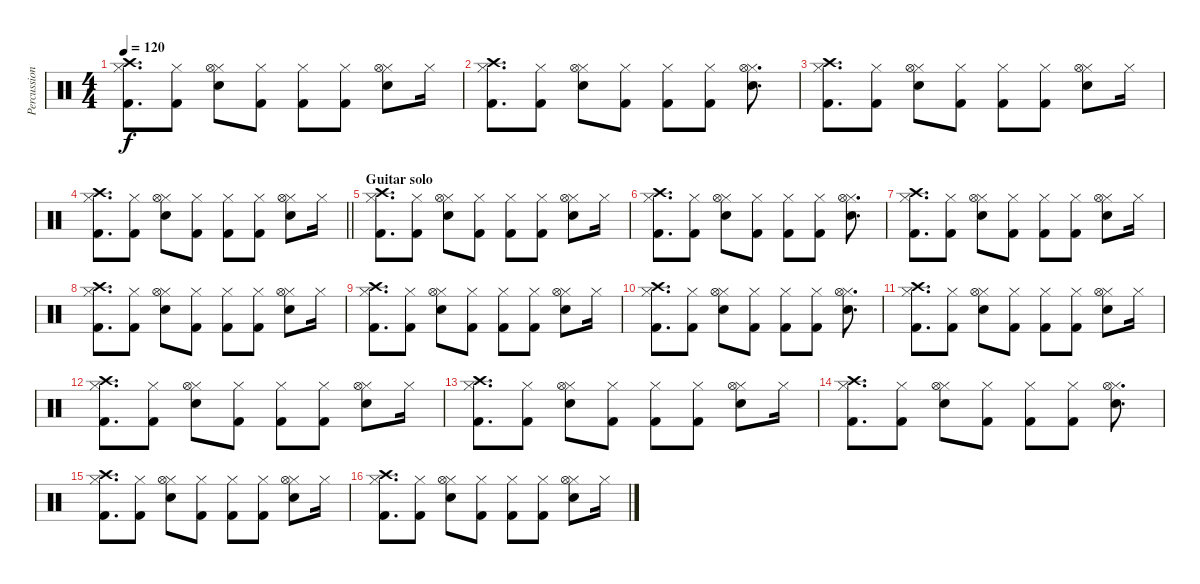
\track ("Percussion" "Percussion") {instrument percussion}
\staff {score}
\articulation defaults
\ts (4 4)
\tempo 120
\clef neutral
\ks c
("Hi-Hat (closed)" "Crash high (hit)" "Kick (hit) 2").8{d dy f} ("Hi-Hat (closed)" "Kick (hit) 2").8 ("Hi-Hat (closed)" "Hi-Hat (open)" "Electric Snare (hit)").8 ("Hi-Hat (closed)" "Kick (hit) 2").8 ("Hi-Hat (closed)" "Kick (hit) 2").8 ("Hi-Hat (closed)" "Kick (hit) 2").8 ("Hi-Hat (closed)" "Hi-Hat (open)" "Electric Snare (hit)").8 "Hi-Hat (closed)".16 |
("Hi-Hat (closed)" "Crash high (hit)" "Kick (hit) 2").8{d} ("Hi-Hat (closed)" "Kick (hit) 2").8 ("Hi-Hat (closed)" "Hi-Hat (open)" "Electric Snare (hit)").8 ("Hi-Hat (closed)" "Kick (hit) 2").8 ("Hi-Hat (closed)" "Kick (hit) 2").8 ("Hi-Hat (closed)" "Kick (hit) 2").8 ("Hi-Hat (closed)" "Hi-Hat (open)" "Electric Snare (hit)").8{d} |
("Hi-Hat (closed)" "Crash high (hit)" "Kick (hit) 2").8{d} ("Hi-Hat (closed)" "Kick (hit) 2").8 ("Hi-Hat (closed)" "Hi-Hat (open)" "Electric Snare (hit)").8 ("Hi-Hat (closed)" "Kick (hit) 2").8 ("Hi-Hat (closed)" "Kick (hit) 2").8 ("Hi-Hat (closed)" "Kick (hit) 2").8 ("Hi-Hat (closed)" "Hi-Hat (open)" "Electric Snare (hit)").8 "Hi-Hat (closed)".16 |
\barLineRight lightlight
("Hi-Hat (closed)" "Crash high (hit)" "Kick (hit) 2").8{d} ("Hi-Hat (closed)" "Kick (hit) 2").8 ("Hi-Hat (closed)" "Hi-Hat (open)" "Electric Snare (hit)").8 ("Hi-Hat (closed)" "Kick (hit) 2").8 ("Hi-Hat (closed)" "Kick (hit) 2").8 ("Hi-Hat (closed)" "Kick (hit) 2").8 ("Hi-Hat (closed)" "Hi-Hat (open)" "Electric Snare (hit)").8 "Hi-Hat (closed)".16 |
\section ("" "Guitar solo")
("Hi-Hat (closed)" "Crash high (hit)" "Kick (hit) 2").8{d} ("Hi-Hat (closed)" "Kick (hit) 2").8 ("Hi-Hat (closed)" "Hi-Hat (open)" "Electric Snare (hit)").8 ("Hi-Hat (closed)" "Kick (hit) 2").8 ("Hi-Hat (closed)" "Kick (hit) 2").8 ("Hi-Hat (closed)" "Kick (hit) 2").8 ("Hi-Hat (closed)" "Hi-Hat (open)" "Electric Snare (hit)").8 "Hi-Hat (closed)".16 |
("Hi-Hat (closed)" "Crash high (hit)" "Kick (hit) 2").8{d} ("Hi-Hat (closed)" "Kick (hit) 2").8 ("Hi-Hat (closed)" "Hi-Hat (open)" "Electric Snare (hit)").8 ("Hi-Hat (closed)" "Kick (hit) 2").8 ("Hi-Hat (closed)" "Kick (hit) 2").8 ("Hi-Hat (closed)" "Kick (hit) 2").8 ("Hi-Hat (closed)" "Hi-Hat (open)" "Electric Snare (hit)").8{d} |
("Hi-Hat (closed)" "Crash high (hit)" "Kick (hit) 2").8{d} ("Hi-Hat (closed)" "Kick (hit) 2").8 ("Hi-Hat (closed)" "Hi-Hat (open)" "Electric Snare (hit)").8 ("Hi-Hat (closed)" "Kick (hit) 2").8 ("Hi-Hat (closed)" "Kick (hit) 2").8 ("Hi-Hat (closed)" "Kick (hit) 2").8 ("Hi-Hat (closed)" "Hi-Hat (open)" "Electric Snare (hit)").8 "Hi-Hat (closed)".16 |
("Hi-Hat (closed)" "Crash high (hit)" "Kick (hit) 2").8{d} ("Hi-Hat (closed)" "Kick (hit) 2").8 ("Hi-Hat (closed)" "Hi-Hat (open)" "Electric Snare (hit)").8 ("Hi-Hat (closed)" "Kick (hit) 2").8 ("Hi-Hat (closed)" "Kick (hit) 2").8 ("Hi-Hat (closed)" "Kick (hit) 2").8 ("Hi-Hat (closed)" "Hi-Hat (open)" "Electric Snare (hit)").8 "Hi-Hat (closed)".16 |
("Hi-Hat (closed)" "Crash high (hit)" "Kick (hit) 2").8{d} ("Hi-Hat (closed)" "Kick (hit) 2").8 ("Hi-Hat (closed)" "Hi-Hat (open)" "Electric Snare (hit)").8 ("Hi-Hat (closed)" "Kick (hit) 2").8 ("Hi-Hat (closed)" "Kick (hit) 2").8 ("Hi-Hat (closed)" "Kick (hit) 2").8 ("Hi-Hat (closed)" "Hi-Hat (open)" "Electric Snare (hit)").8 "Hi-Hat (closed)".16 |
("Hi-Hat (closed)" "Crash high (hit)" "Kick (hit) 2").8{d} ("Hi-Hat (closed)" "Kick (hit) 2").8 ("Hi-Hat (closed)" "Hi-Hat (open)" "Electric Snare (hit)").8 ("Hi-Hat (closed)" "Kick (hit) 2").8 ("Hi-Hat (closed)" "Kick (hit) 2").8 ("Hi-Hat (closed)" "Kick (hit) 2").8 ("Hi-Hat (closed)" "Hi-Hat (open)" "Electric Snare (hit)").8{d} |
("Hi-Hat (closed)" "Crash high (hit)" "Kick (hit) 2").8{d} ("Hi-Hat (closed)" "Kick (hit) 2").8 ("Hi-Hat (closed)" "Hi-Hat (open)" "Electric Snare (hit)").8 ("Hi-Hat (closed)" "Kick (hit) 2").8 ("Hi-Hat (closed)" "Kick (hit) 2").8 ("Hi-Hat (closed)" "Kick (hit) 2").8 ("Hi-Hat (closed)" "Hi-Hat (open)" "Electric Snare (hit)").8 "Hi-Hat (closed)".16 |
("Hi-Hat (closed)" "Crash high (hit)" "Kick (hit) 2").8{d} ("Hi-Hat (closed)" "Kick (hit) 2").8 ("Hi-Hat (closed)" "Hi-Hat (open)" "Electric Snare (hit)").8 ("Hi-Hat (closed)" "Kick (hit) 2").8 ("Hi-Hat (closed)" "Kick (hit) 2").8 ("Hi-Hat (closed)" "Kick (hit) 2").8 ("Hi-Hat (closed)" "Hi-Hat (open)" "Electric Snare (hit)").8 "Hi-Hat (closed)".16 |
("Hi-Hat (closed)" "Crash high (hit)" "Kick (hit) 2").8{d} ("Hi-Hat (closed)" "Kick (hit) 2").8 ("Hi-Hat (closed)" "Hi-Hat (open)" "Electric Snare (hit)").8 ("Hi-Hat (closed)" "Kick (hit) 2").8 ("Hi-Hat (closed)" "Kick (hit) 2").8 ("Hi-Hat (closed)" "Kick (hit) 2").8 ("Hi-Hat (closed)" "Hi-Hat (open)" "Electric Snare (hit)").8 "Hi-Hat (closed)".16 |
("Hi-Hat (closed)" "Crash high (hit)" "Kick (hit) 2").8{d} ("Hi-Hat (closed)" "Kick (hit) 2").8 ("Hi-Hat (closed)" "Hi-Hat (open)" "Electric Snare (hit)").8 ("Hi-Hat (closed)" "Kick (hit) 2").8 ("Hi-Hat (closed)" "Kick (hit) 2").8 ("Hi-Hat (closed)" "Kick (hit) 2").8 ("Hi-Hat (closed)" "Hi-Hat (open)" "Electric Snare (hit)").8{d} |
("Hi-Hat (closed)" "Crash high (hit)" "Kick (hit) 2").8{d} ("Hi-Hat (closed)" "Kick (hit) 2").8 ("Hi-Hat (closed)" "Hi-Hat (open)" "Electric Snare (hit)").8 ("Hi-Hat (closed)" "Kick (hit) 2").8 ("Hi-Hat (closed)" "Kick (hit) 2").8 ("Hi-Hat (closed)" "Kick (hit) 2").8 ("Hi-Hat (closed)" "Hi-Hat (open)" "Electric Snare (hit)").8 "Hi-Hat (closed)".16 |
("Hi-Hat (closed)" "Crash high (hit)" "Kick (hit) 2").8{d} ("Hi-Hat (closed)" "Kick (hit) 2").8 ("Hi-Hat (closed)" "Hi-Hat (open)" "Electric Snare (hit)").8 ("Hi-Hat (closed)" "Kick (hit) 2").8 ("Hi-Hat (closed)" "Kick (hit) 2").8 ("Hi-Hat (closed)" "Kick (hit) 2").8 ("Hi-Hat (closed)" "Hi-Hat (open)" "Electric Snare (hit)").8 "Hi-Hat (closed)".16
